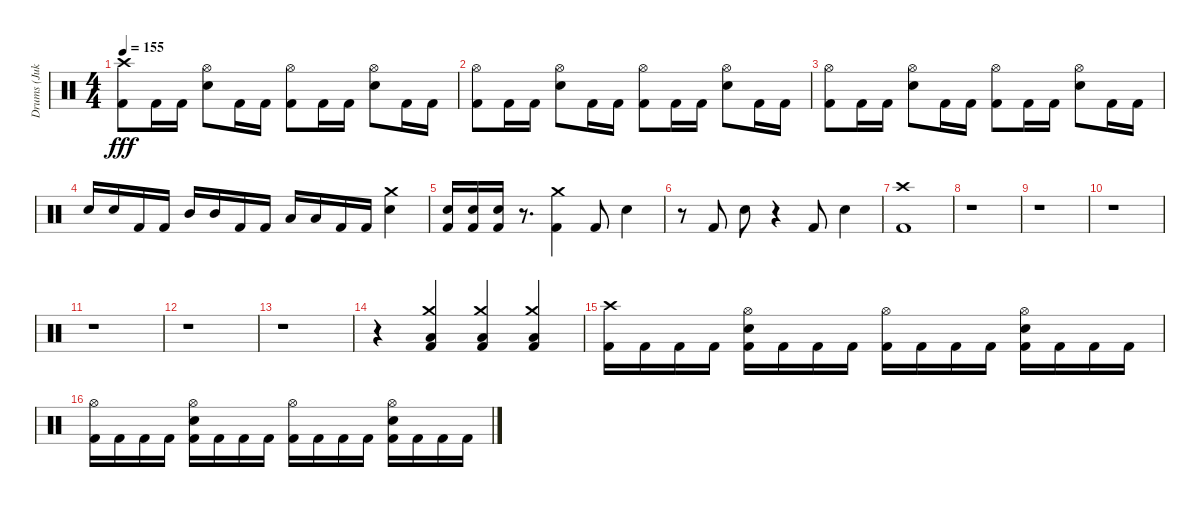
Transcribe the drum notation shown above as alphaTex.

\track ("Drums (Jukka)" "Drums (Juk") {instrument percussion}
\staff {score}
\articulation defaults
\ts (4 4)
\tempo 155
\clef neutral
\ks c
("Kick (hit) 2" "Crash high (hit)").8{dy fff} "Kick (hit) 2".16 "Kick (hit) 2".16 ("Snare (hit) 2" "Hi-Hat (open)").8 "Kick (hit) 2".16 "Kick (hit) 2".16 ("Kick (hit) 2" "Hi-Hat (open)").8 "Kick (hit) 2".16 "Kick (hit) 2".16 ("Snare (hit) 2" "Hi-Hat (open)").8 "Kick (hit) 2".16 "Kick (hit) 2".16 |
("Kick (hit) 2" "Hi-Hat (open)").8 "Kick (hit) 2".16 "Kick (hit) 2".16 ("Snare (hit) 2" "Hi-Hat (open)").8 "Kick (hit) 2".16 "Kick (hit) 2".16 ("Kick (hit) 2" "Hi-Hat (open)").8 "Kick (hit) 2".16 "Kick (hit) 2".16 ("Snare (hit) 2" "Hi-Hat (open)").8 "Kick (hit) 2".16 "Kick (hit) 2".16 |
("Kick (hit) 2" "Hi-Hat (open)").8 "Kick (hit) 2".16 "Kick (hit) 2".16 ("Snare (hit) 2" "Hi-Hat (open)").8 "Kick (hit) 2".16 "Kick (hit) 2".16 ("Kick (hit) 2" "Hi-Hat (open)").8 "Kick (hit) 2".16 "Kick (hit) 2".16 ("Snare (hit) 2" "Hi-Hat (open)").8 "Kick (hit) 2".16 "Kick (hit) 2".16 |
"Snare (hit) 2".16 "Snare (hit) 2".16 "Kick (hit) 2".16 "Kick (hit) 2".16 "Mid Tom (hit)".16 "Mid Tom (hit)".16 "Kick (hit) 2".16 "Kick (hit) 2".16 "Low Tom (hit)".16 "Low Tom (hit)".16 "Kick (hit) 2".16 "Kick (hit) 2".16 ("Snare (hit) 2" "Crash medium (hit)").4 |
("Snare (hit) 2" "Kick (hit) 2").16 ("Snare (hit) 2" "Kick (hit) 2").16 ("Snare (hit) 2" "Kick (hit) 2").16 r.8{d} ("Kick (hit) 2" "Crash medium (hit)").4 "Kick (hit) 2".8 "Snare (hit) 2".4 |
r.8 "Kick (hit) 2".8 "Snare (hit) 2".8 r.4 "Kick (hit) 2".8 "Snare (hit) 2".4 |
("Kick (hit) 2" "Crash high (hit)").1 |
r.1 |
r.1 |
r.1 |
r.1 |
r.1 |
r.1 |
r.4 ("Kick (hit) 2" "Low Floor Tom (hit)" "Crash medium (hit)").4 ("Kick (hit) 2" "Low Floor Tom (hit)" "Crash medium (hit)").4 ("Kick (hit) 2" "Low Floor Tom (hit)" "Crash medium (hit)").4 |
("Kick (hit) 2" "Crash high (hit)").16 "Kick (hit) 2".16 "Kick (hit) 2".16 "Kick (hit) 2".16 ("Snare (hit) 2" "Kick (hit) 2" "Hi-Hat (open)").16 "Kick (hit) 2".16 "Kick (hit) 2".16 "Kick (hit) 2".16 ("Kick (hit) 2" "Hi-Hat (open)").16 "Kick (hit) 2".16 "Kick (hit) 2".16 "Kick (hit) 2".16 ("Snare (hit) 2" "Kick (hit) 2" "Hi-Hat (open)").16 "Kick (hit) 2".16 "Kick (hit) 2".16 "Kick (hit) 2".16 |
("Kick (hit) 2" "Hi-Hat (open)").16 "Kick (hit) 2".16 "Kick (hit) 2".16 "Kick (hit) 2".16 ("Snare (hit) 2" "Kick (hit) 2" "Hi-Hat (open)").16 "Kick (hit) 2".16 "Kick (hit) 2".16 "Kick (hit) 2".16 ("Kick (hit) 2" "Hi-Hat (open)").16 "Kick (hit) 2".16 "Kick (hit) 2".16 "Kick (hit) 2".16 ("Snare (hit) 2" "Kick (hit) 2" "Hi-Hat (open)").16 "Kick (hit) 2".16 "Kick (hit) 2".16 "Kick (hit) 2".16
